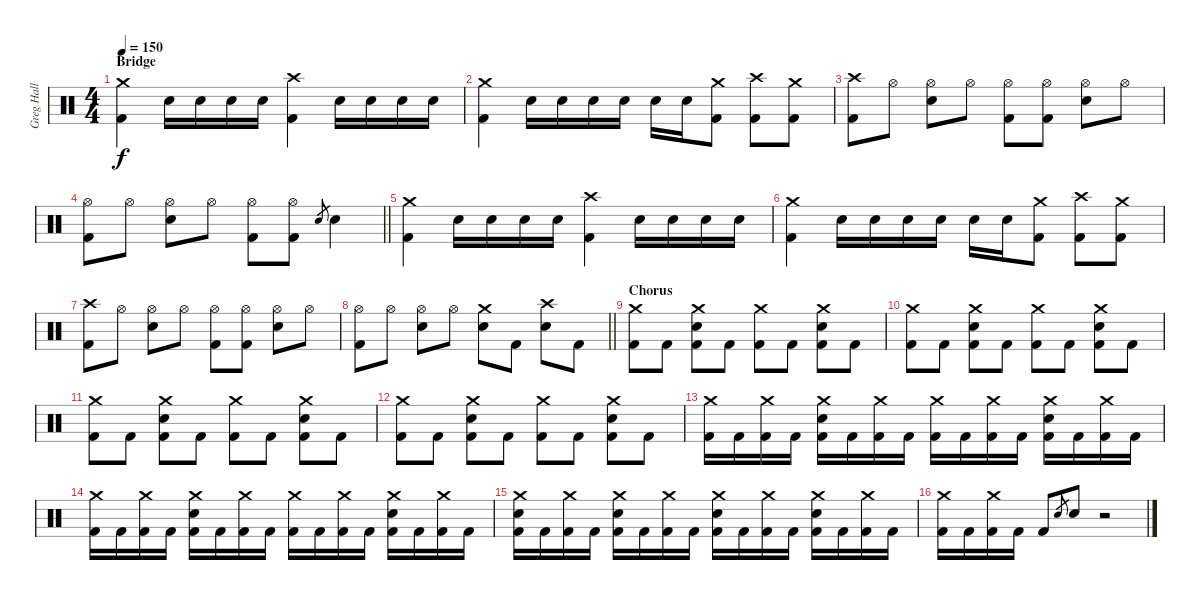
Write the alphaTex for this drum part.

\track ("Greg Hall" "Greg Hall") {instrument percussion}
\staff {score}
\articulation defaults
\ts (4 4)
\section ("" "Bridge")
\tempo 150
\clef neutral
\ks c
("Crash medium (hit)" "Kick (hit) 2").4{dy f} "Electric Snare (hit)".16 "Electric Snare (hit)".16 "Electric Snare (hit)".16 "Electric Snare (hit)".16 ("Crash high (hit)" "Kick (hit) 2").4 "Electric Snare (hit)".16 "Electric Snare (hit)".16 "Electric Snare (hit)".16 "Electric Snare (hit)".16 |
("Crash medium (hit)" "Kick (hit) 2").4 "Electric Snare (hit)".16 "Electric Snare (hit)".16 "Electric Snare (hit)".16 "Electric Snare (hit)".16 "Electric Snare (hit)".16 "Electric Snare (hit)".16 ("Crash medium (hit)" "Kick (hit) 2").8 ("Crash high (hit)" "Kick (hit) 2").8 ("Crash medium (hit)" "Kick (hit) 2").8 |
("Crash high (hit)" "Kick (hit) 2").8 "Hi-Hat (open)".8 ("Hi-Hat (open)" "Electric Snare (hit)").8 "Hi-Hat (open)".8 ("Hi-Hat (open)" "Kick (hit) 2").8 ("Hi-Hat (open)" "Kick (hit) 2").8 ("Hi-Hat (open)" "Electric Snare (hit)").8 "Hi-Hat (open)".8 |
\barLineRight lightlight
("Hi-Hat (open)" "Kick (hit) 2").8 "Hi-Hat (open)".8 ("Hi-Hat (open)" "Electric Snare (hit)").8 "Hi-Hat (open)".8 ("Hi-Hat (open)" "Kick (hit) 2").8 ("Hi-Hat (open)" "Kick (hit) 2").8 "Electric Snare (hit)".8{gr} "Electric Snare (hit)".4 |
("Crash medium (hit)" "Kick (hit) 2").4 "Electric Snare (hit)".16 "Electric Snare (hit)".16 "Electric Snare (hit)".16 "Electric Snare (hit)".16 ("Crash high (hit)" "Kick (hit) 2").4 "Electric Snare (hit)".16 "Electric Snare (hit)".16 "Electric Snare (hit)".16 "Electric Snare (hit)".16 |
("Crash medium (hit)" "Kick (hit) 2").4 "Electric Snare (hit)".16 "Electric Snare (hit)".16 "Electric Snare (hit)".16 "Electric Snare (hit)".16 "Electric Snare (hit)".16 "Electric Snare (hit)".16 ("Crash medium (hit)" "Kick (hit) 2").8 ("Crash high (hit)" "Kick (hit) 2").8 ("Crash medium (hit)" "Kick (hit) 2").8 |
("Crash high (hit)" "Kick (hit) 2").8 "Hi-Hat (open)".8 ("Hi-Hat (open)" "Electric Snare (hit)").8 "Hi-Hat (open)".8 ("Hi-Hat (open)" "Kick (hit) 2").8 ("Hi-Hat (open)" "Kick (hit) 2").8 ("Hi-Hat (open)" "Electric Snare (hit)").8 "Hi-Hat (open)".8 |
\barLineRight lightlight
("Hi-Hat (open)" "Kick (hit) 2").8 "Hi-Hat (open)".8 ("Hi-Hat (open)" "Electric Snare (hit)").8 "Hi-Hat (open)".8 ("Crash medium (hit)" "Electric Snare (hit)").8 "Kick (hit) 2".8 ("Crash high (hit)" "Electric Snare (hit)").8 "Kick (hit) 2".8 |
\section ("" "Chorus")
("Crash medium (hit)" "Kick (hit) 2").8 "Kick (hit) 2".8 ("Crash medium (hit)" "Electric Snare (hit)" "Kick (hit) 2").8 "Kick (hit) 2".8 ("Crash medium (hit)" "Kick (hit) 2").8 "Kick (hit) 2".8 ("Crash medium (hit)" "Electric Snare (hit)" "Kick (hit) 2").8 "Kick (hit) 2".8 |
("Crash medium (hit)" "Kick (hit) 2").8 "Kick (hit) 2".8 ("Crash medium (hit)" "Electric Snare (hit)" "Kick (hit) 2").8 "Kick (hit) 2".8 ("Crash medium (hit)" "Kick (hit) 2").8 "Kick (hit) 2".8 ("Crash medium (hit)" "Electric Snare (hit)" "Kick (hit) 2").8 "Kick (hit) 2".8 |
("Crash medium (hit)" "Kick (hit) 2").8 "Kick (hit) 2".8 ("Crash medium (hit)" "Electric Snare (hit)" "Kick (hit) 2").8 "Kick (hit) 2".8 ("Crash medium (hit)" "Kick (hit) 2").8 "Kick (hit) 2".8 ("Crash medium (hit)" "Electric Snare (hit)" "Kick (hit) 2").8 "Kick (hit) 2".8 |
("Crash medium (hit)" "Kick (hit) 2").8 "Kick (hit) 2".8 ("Crash medium (hit)" "Electric Snare (hit)" "Kick (hit) 2").8 "Kick (hit) 2".8 ("Crash medium (hit)" "Kick (hit) 2").8 "Kick (hit) 2".8 ("Crash medium (hit)" "Electric Snare (hit)" "Kick (hit) 2").8 "Kick (hit) 2".8 |
("Crash medium (hit)" "Kick (hit) 2").16 "Kick (hit) 2".16 ("Crash medium (hit)" "Kick (hit) 2").16 "Kick (hit) 2".16 ("Crash medium (hit)" "Electric Snare (hit)" "Kick (hit) 2").16 "Kick (hit) 2".16 ("Crash medium (hit)" "Kick (hit) 2").16 "Kick (hit) 2".16 ("Crash medium (hit)" "Kick (hit) 2").16 "Kick (hit) 2".16 ("Crash medium (hit)" "Kick (hit) 2").16 "Kick (hit) 2".16 ("Crash medium (hit)" "Electric Snare (hit)" "Kick (hit) 2").16 "Kick (hit) 2".16 ("Crash medium (hit)" "Kick (hit) 2").16 "Kick (hit) 2".16 |
("Crash medium (hit)" "Kick (hit) 2").16 "Kick (hit) 2".16 ("Crash medium (hit)" "Kick (hit) 2").16 "Kick (hit) 2".16 ("Crash medium (hit)" "Electric Snare (hit)" "Kick (hit) 2").16 "Kick (hit) 2".16 ("Crash medium (hit)" "Kick (hit) 2").16 "Kick (hit) 2".16 ("Crash medium (hit)" "Kick (hit) 2").16 "Kick (hit) 2".16 ("Crash medium (hit)" "Kick (hit) 2").16 "Kick (hit) 2".16 ("Crash medium (hit)" "Electric Snare (hit)" "Kick (hit) 2").16 "Kick (hit) 2".16 ("Crash medium (hit)" "Kick (hit) 2").16 "Kick (hit) 2".16 |
("Crash medium (hit)" "Electric Snare (hit)" "Kick (hit) 2").16 "Kick (hit) 2".16 ("Crash medium (hit)" "Kick (hit) 2").16 "Kick (hit) 2".16 ("Crash medium (hit)" "Electric Snare (hit)" "Kick (hit) 2").16 "Kick (hit) 2".16 ("Crash medium (hit)" "Kick (hit) 2").16 "Kick (hit) 2".16 ("Crash medium (hit)" "Electric Snare (hit)" "Kick (hit) 2").16 "Kick (hit) 2".16 ("Crash medium (hit)" "Kick (hit) 2").16 "Kick (hit) 2".16 ("Crash medium (hit)" "Electric Snare (hit)" "Kick (hit) 2").16 "Kick (hit) 2".16 ("Crash medium (hit)" "Kick (hit) 2").16 "Kick (hit) 2".16 |
("Crash medium (hit)" "Kick (hit) 2").16 "Kick (hit) 2".16 ("Crash medium (hit)" "Kick (hit) 2").16 "Kick (hit) 2".16 "Kick (hit) 2".8 "Electric Snare (hit)".8{gr} "Electric Snare (hit)".8 r.2
